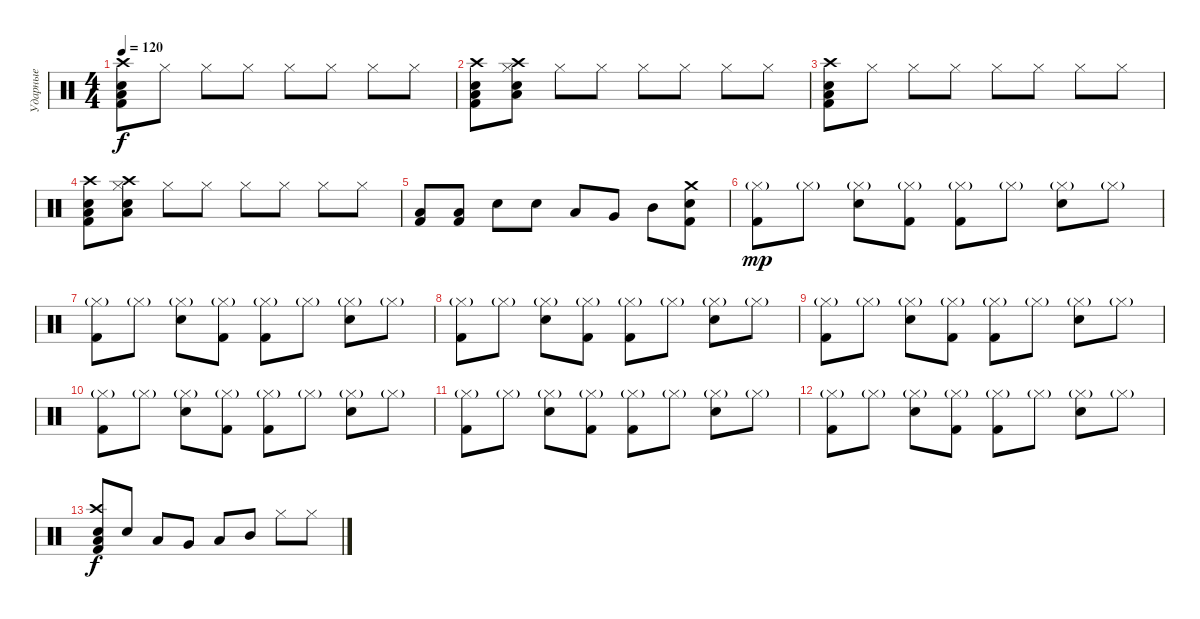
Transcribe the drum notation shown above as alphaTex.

\track ("Ударные" "Ударные") {instrument percussion}
\staff {score}
\articulation defaults
\ts (4 4)
\tempo 120
\clef neutral
\ks c
("Kick (hit) 2" "Snare (hit) 2" "Low Floor Tom (hit)" "Crash high (hit)").8{dy f} "Hi-Hat (closed)".8 "Hi-Hat (closed)".8 "Hi-Hat (closed)".8 "Hi-Hat (closed)".8 "Hi-Hat (closed)".8 "Hi-Hat (closed)".8 "Hi-Hat (closed)".8 |
("Kick (hit) 2" "Snare (hit) 2" "Low Floor Tom (hit)" "Crash high (hit)").8 ("Hi-Hat (closed)" "Snare (hit) 2" "Low Floor Tom (hit)" "Crash high (hit)").8 "Hi-Hat (closed)".8 "Hi-Hat (closed)".8 "Hi-Hat (closed)".8 "Hi-Hat (closed)".8 "Hi-Hat (closed)".8 "Hi-Hat (closed)".8 |
("Kick (hit) 2" "Snare (hit) 2" "Low Floor Tom (hit)" "Crash high (hit)").8 "Hi-Hat (closed)".8 "Hi-Hat (closed)".8 "Hi-Hat (closed)".8 "Hi-Hat (closed)".8 "Hi-Hat (closed)".8 "Hi-Hat (closed)".8 "Hi-Hat (closed)".8 |
("Kick (hit) 2" "Snare (hit) 2" "Low Floor Tom (hit)" "Crash high (hit)").8 ("Hi-Hat (closed)" "Snare (hit) 2" "Low Floor Tom (hit)" "Crash high (hit)").8 "Hi-Hat (closed)".8 "Hi-Hat (closed)".8 "Hi-Hat (closed)".8 "Hi-Hat (closed)".8 "Hi-Hat (closed)".8 "Hi-Hat (closed)".8 |
("Kick (hit) 2" "Low Floor Tom (hit)").8 ("Kick (hit) 2" "Low Floor Tom (hit)").8 "Electric Snare (hit)".8 "Electric Snare (hit)".8 "Low Floor Tom (hit)".8 "Very Low Tom (hit)".8 "Mid Tom (hit)".8 ("Kick (hit) 2" "Electric Snare (hit)" "Crash medium (hit)").8 |
("Hi-Hat (closed)"{g} "Kick (hit) 2").8{dy mp} "Hi-Hat (closed)"{g}.8 ("Hi-Hat (closed)"{g} "Snare (hit) 2").8 ("Hi-Hat (closed)"{g} "Kick (hit) 2").8 ("Hi-Hat (closed)"{g} "Kick (hit) 2").8 "Hi-Hat (closed)"{g}.8 ("Hi-Hat (closed)"{g} "Snare (hit) 2").8 "Hi-Hat (closed)"{g}.8 |
("Hi-Hat (closed)"{g} "Kick (hit) 2").8 "Hi-Hat (closed)"{g}.8 ("Hi-Hat (closed)"{g} "Snare (hit) 2").8 ("Hi-Hat (closed)"{g} "Kick (hit) 2").8 ("Hi-Hat (closed)"{g} "Kick (hit) 2").8 "Hi-Hat (closed)"{g}.8 ("Hi-Hat (closed)"{g} "Snare (hit) 2").8 "Hi-Hat (closed)"{g}.8 |
("Hi-Hat (closed)"{g} "Kick (hit) 2").8 "Hi-Hat (closed)"{g}.8 ("Hi-Hat (closed)"{g} "Snare (hit) 2").8 ("Hi-Hat (closed)"{g} "Kick (hit) 2").8 ("Hi-Hat (closed)"{g} "Kick (hit) 2").8 "Hi-Hat (closed)"{g}.8 ("Hi-Hat (closed)"{g} "Snare (hit) 2").8 "Hi-Hat (closed)"{g}.8 |
("Hi-Hat (closed)"{g} "Kick (hit) 2").8 "Hi-Hat (closed)"{g}.8 ("Hi-Hat (closed)"{g} "Snare (hit) 2").8 ("Hi-Hat (closed)"{g} "Kick (hit) 2").8 ("Hi-Hat (closed)"{g} "Kick (hit) 2").8 "Hi-Hat (closed)"{g}.8 ("Hi-Hat (closed)"{g} "Snare (hit) 2").8 "Hi-Hat (closed)"{g}.8 |
("Hi-Hat (closed)"{g} "Kick (hit) 2").8 "Hi-Hat (closed)"{g}.8 ("Hi-Hat (closed)"{g} "Snare (hit) 2").8 ("Hi-Hat (closed)"{g} "Kick (hit) 2").8 ("Hi-Hat (closed)"{g} "Kick (hit) 2").8 "Hi-Hat (closed)"{g}.8 ("Hi-Hat (closed)"{g} "Snare (hit) 2").8 "Hi-Hat (closed)"{g}.8 |
("Hi-Hat (closed)"{g} "Kick (hit) 2").8 "Hi-Hat (closed)"{g}.8 ("Hi-Hat (closed)"{g} "Snare (hit) 2").8 ("Hi-Hat (closed)"{g} "Kick (hit) 2").8 ("Hi-Hat (closed)"{g} "Kick (hit) 2").8 "Hi-Hat (closed)"{g}.8 ("Hi-Hat (closed)"{g} "Snare (hit) 2").8 "Hi-Hat (closed)"{g}.8 |
("Hi-Hat (closed)"{g} "Kick (hit) 2").8 "Hi-Hat (closed)"{g}.8 ("Hi-Hat (closed)"{g} "Snare (hit) 2").8 ("Hi-Hat (closed)"{g} "Kick (hit) 2").8 ("Hi-Hat (closed)"{g} "Kick (hit) 2").8 "Hi-Hat (closed)"{g}.8 ("Hi-Hat (closed)"{g} "Snare (hit) 2").8 "Hi-Hat (closed)"{g}.8 |
("Kick (hit) 2" "Electric Snare (hit)" "Low Floor Tom (hit)" "Crash high (hit)").8{dy f} "Electric Snare (hit)".8 "Low Floor Tom (hit)".8 "Very Low Tom (hit)".8 "Low Tom (hit)".8 "Mid Tom (hit)".8 "Hi-Hat (closed)".8 "Hi-Hat (closed)".8
